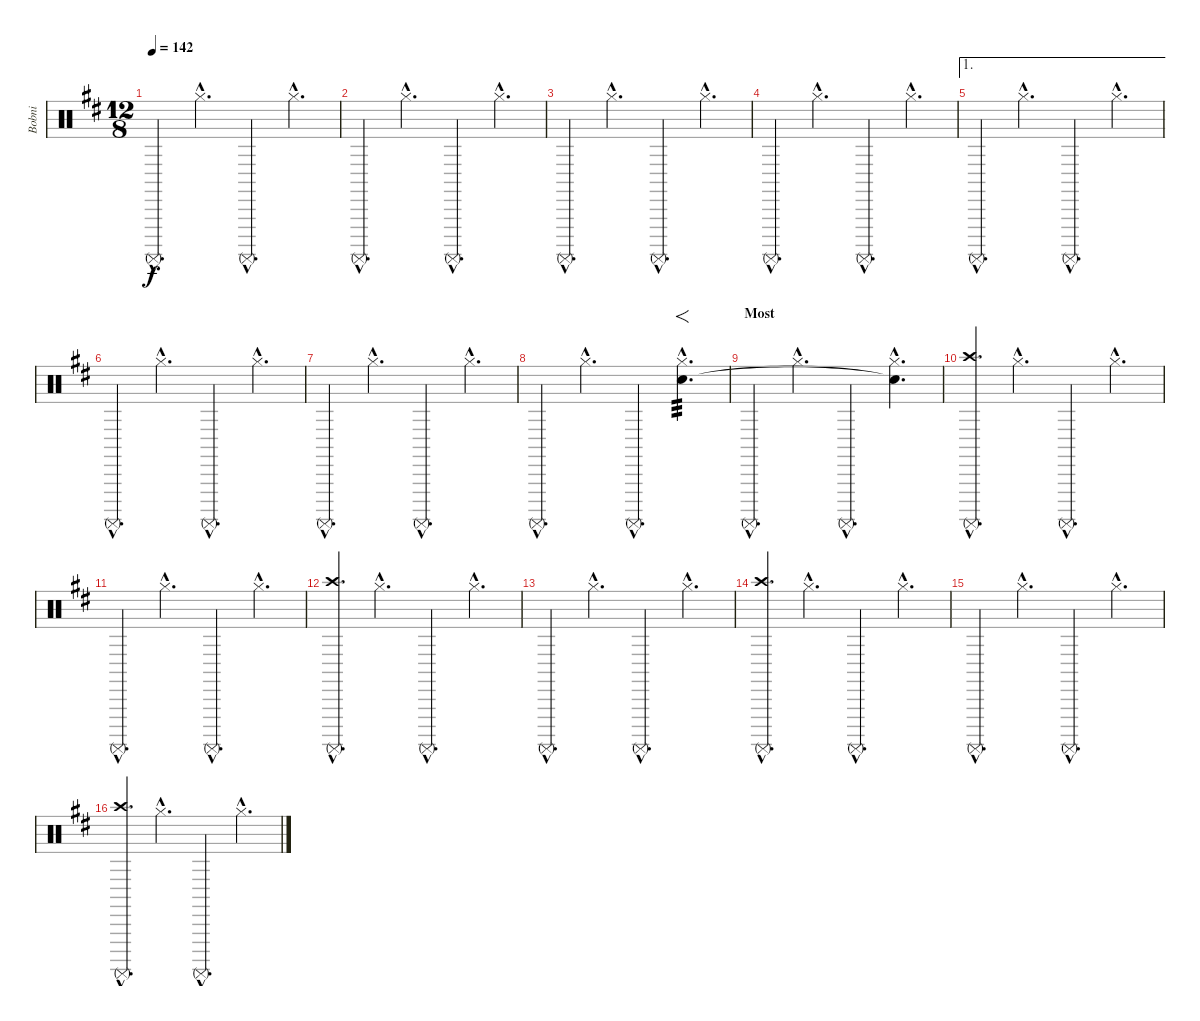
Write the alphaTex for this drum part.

\track ("Bobni" "Bobni") {instrument percussion}
\staff {score}
\articulation defaults
\ts (12 8)
\tempo 142
\clef neutral
\ks d "Surdo (mute)"{hac}.4{d dy f} "Hi-Hat (closed)"{hac}.4{d} "Surdo (mute)"{hac}.4{d} "Hi-Hat (closed)"{hac}.4{d}
|
"Surdo (mute)"{hac}.4{d} "Hi-Hat (closed)"{hac}.4{d} "Surdo (mute)"{hac}.4{d} "Hi-Hat (closed)"{hac}.4{d} |
"Surdo (mute)"{hac}.4{d} "Hi-Hat (closed)"{hac}.4{d} "Surdo (mute)"{hac}.4{d} "Hi-Hat (closed)"{hac}.4{d} |
"Surdo (mute)"{hac}.4{d} "Hi-Hat (closed)"{hac}.4{d} "Surdo (mute)"{hac}.4{d} "Hi-Hat (closed)"{hac}.4{d} |
\ae 1 "Surdo (mute)"{hac}.4{d} "Hi-Hat (closed)"{hac}.4{d} "Surdo (mute)"{hac}.4{d} "Hi-Hat (closed)"{hac}.4{d}
|
"Surdo (mute)"{hac}.4{d} "Hi-Hat (closed)"{hac}.4{d} "Surdo (mute)"{hac}.4{d} "Hi-Hat (closed)"{hac}.4{d} |
"Surdo (mute)"{hac}.4{d} "Hi-Hat (closed)"{hac}.4{d} "Surdo (mute)"{hac}.4{d} "Hi-Hat (closed)"{hac}.4{d} |
"Surdo (mute)"{hac}.4{d} "Hi-Hat (closed)"{hac}.4{d} "Surdo (mute)"{hac}.4{d} ("Hi-Hat (closed)"{hac} "Electric Snare (hit)"{hac}).4{f d tp 3} |
\section ("" "Most")
"Surdo (mute)"{hac}.4{d} "Hi-Hat (closed)"{hac}.4{d} "Surdo (mute)"{hac}.4{d} ("Hi-Hat (closed)"{hac} "Electric Snare (hit)"{hac t}).4{d} |
("Surdo (mute)"{hac} "Crash high (hit)"{hac}).4{d} "Hi-Hat (closed)"{hac}.4{d} "Surdo (mute)"{hac}.4{d} "Hi-Hat (closed)"{hac}.4{d} |
"Surdo (mute)"{hac}.4{d} "Hi-Hat (closed)"{hac}.4{d} "Surdo (mute)"{hac}.4{d} "Hi-Hat (closed)"{hac}.4{d} |
("Surdo (mute)"{hac} "Crash high (hit)"{hac}).4{d} "Hi-Hat (closed)"{hac}.4{d} "Surdo (mute)"{hac}.4{d} "Hi-Hat (closed)"{hac}.4{d} |
"Surdo (mute)"{hac}.4{d} "Hi-Hat (closed)"{hac}.4{d} "Surdo (mute)"{hac}.4{d} "Hi-Hat (closed)"{hac}.4{d} |
("Surdo (mute)"{hac} "Crash high (hit)"{hac}).4{d} "Hi-Hat (closed)"{hac}.4{d} "Surdo (mute)"{hac}.4{d} "Hi-Hat (closed)"{hac}.4{d} |
"Surdo (mute)"{hac}.4{d} "Hi-Hat (closed)"{hac}.4{d} "Surdo (mute)"{hac}.4{d} "Hi-Hat (closed)"{hac}.4{d} |
("Surdo (mute)"{hac} "Crash high (hit)"{hac}).4{d} "Hi-Hat (closed)"{hac}.4{d} "Surdo (mute)"{hac}.4{d} "Hi-Hat (closed)"{hac}.4{d}
